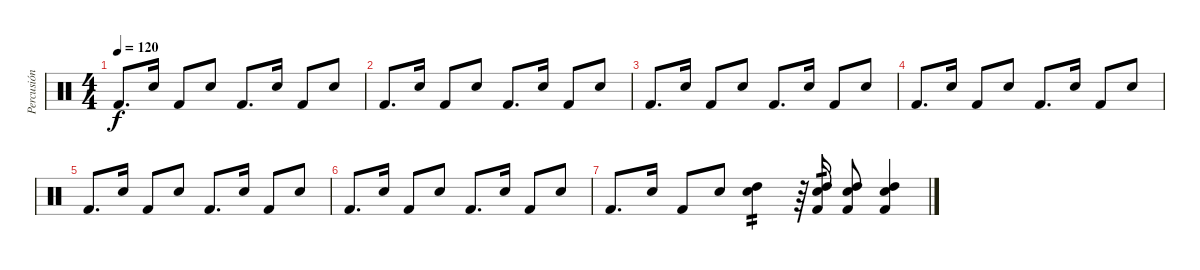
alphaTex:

\track ("Percusión" "Percusión") {instrument percussion}
\staff {score}
\articulation defaults
\ts (4 4)
\tempo 120
\clef neutral
\ks c "Kick (hit) 2".8{d dy f} "Electric Snare (hit)".16 "Kick (hit) 2".8 "Electric Snare (hit)".8 "Kick (hit) 2".8{d} "Electric Snare (hit)".16 "Kick (hit) 2".8 "Electric Snare (hit)".8
|
"Kick (hit) 2".8{d} "Electric Snare (hit)".16 "Kick (hit) 2".8 "Electric Snare (hit)".8 "Kick (hit) 2".8{d} "Electric Snare (hit)".16 "Kick (hit) 2".8 "Electric Snare (hit)".8 |
"Kick (hit) 2".8{d} "Electric Snare (hit)".16 "Kick (hit) 2".8 "Electric Snare (hit)".8 "Kick (hit) 2".8{d} "Electric Snare (hit)".16 "Kick (hit) 2".8 "Electric Snare (hit)".8 |
"Kick (hit) 2".8{d} "Electric Snare (hit)".16 "Kick (hit) 2".8 "Electric Snare (hit)".8 "Kick (hit) 2".8{d} "Electric Snare (hit)".16 "Kick (hit) 2".8 "Electric Snare (hit)".8 |
"Kick (hit) 2".8{d} "Electric Snare (hit)".16 "Kick (hit) 2".8 "Electric Snare (hit)".8 "Kick (hit) 2".8{d} "Electric Snare (hit)".16 "Kick (hit) 2".8 "Electric Snare (hit)".8 |
"Kick (hit) 2".8{d} "Electric Snare (hit)".16 "Kick (hit) 2".8 "Electric Snare (hit)".8 "Kick (hit) 2".8{d} "Electric Snare (hit)".16 "Kick (hit) 2".8 "Electric Snare (hit)".8 |
"Kick (hit) 2".8{d} "Electric Snare (hit)".16 "Kick (hit) 2".8 "Electric Snare (hit)".8 ("High Tom (hit)" "Electric Snare (hit)").4{tp 2} r.64 ("High Tom (hit)" "Electric Snare (hit)" "Kick (hit) 2").16{tp 1 beam split} ("High Tom (hit)" "Electric Snare (hit)" "Kick (hit) 2").8 ("High Tom (hit)" "Electric Snare (hit)" "Kick (hit) 2").4
